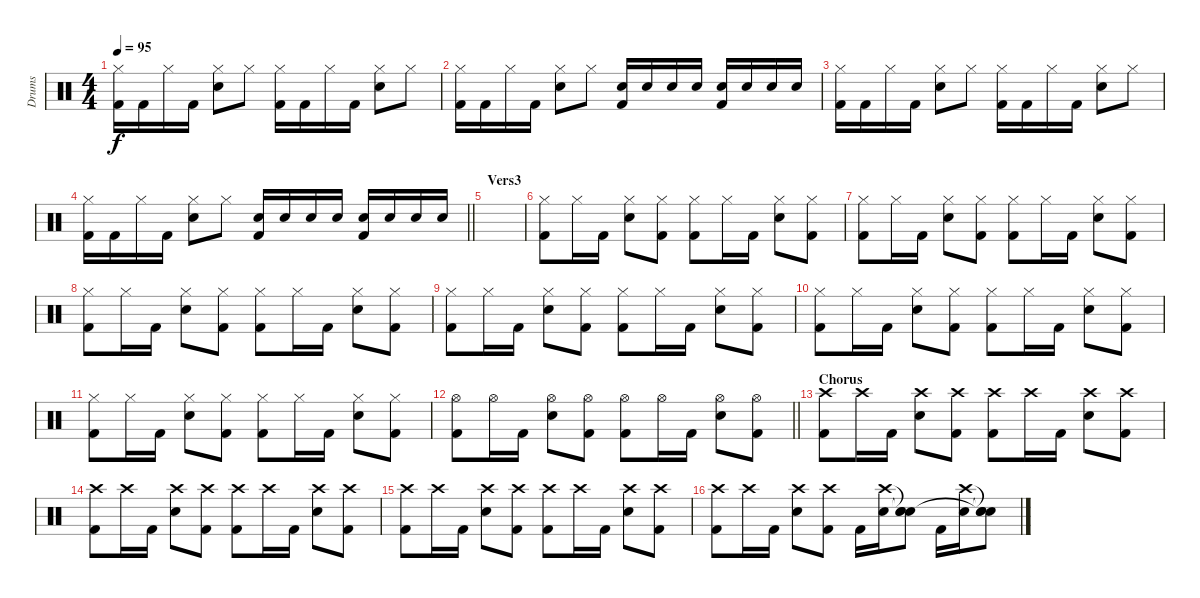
\track ("Drums" "Drums") {instrument percussion}
\staff {score}
\articulation defaults
\ts (4 4)
\tempo 95
\clef neutral
\ks c
("Hi-Hat (closed)" "Kick (hit) 2").16{dy f} "Kick (hit) 2".16 "Hi-Hat (closed)".16 "Kick (hit) 2".16 ("Hi-Hat (closed)" "Snare (hit) 2").8 "Hi-Hat (closed)".8 ("Hi-Hat (closed)" "Kick (hit) 2").16 "Kick (hit) 2".16 "Hi-Hat (closed)".16 "Kick (hit) 2".16 ("Hi-Hat (closed)" "Snare (hit) 2").8 "Hi-Hat (closed)".8 |
("Hi-Hat (closed)" "Kick (hit) 2").16 "Kick (hit) 2".16 "Hi-Hat (closed)".16 "Kick (hit) 2".16 ("Hi-Hat (closed)" "Snare (hit) 2").8 "Hi-Hat (closed)".8 ("Snare (hit) 2" "Kick (hit) 2").16 "Snare (hit) 2".16 "Snare (hit) 2".16 "Snare (hit) 2".16 ("Snare (hit) 2" "Kick (hit) 2").16 "Snare (hit) 2".16 "Snare (hit) 2".16 "Snare (hit) 2".16 |
("Hi-Hat (closed)" "Kick (hit) 2").16 "Kick (hit) 2".16 "Hi-Hat (closed)".16 "Kick (hit) 2".16 ("Hi-Hat (closed)" "Snare (hit) 2").8 "Hi-Hat (closed)".8 ("Hi-Hat (closed)" "Kick (hit) 2").16 "Kick (hit) 2".16 "Hi-Hat (closed)".16 "Kick (hit) 2".16 ("Hi-Hat (closed)" "Snare (hit) 2").8 "Hi-Hat (closed)".8 |
\barLineRight lightlight
("Hi-Hat (closed)" "Kick (hit) 2").16 "Kick (hit) 2".16 "Hi-Hat (closed)".16 "Kick (hit) 2".16 ("Hi-Hat (closed)" "Snare (hit) 2").8 "Hi-Hat (closed)".8 ("Snare (hit) 2" "Kick (hit) 2").16 "Snare (hit) 2".16 "Snare (hit) 2".16 "Snare (hit) 2".16 ("Snare (hit) 2" "Kick (hit) 2").16 "Snare (hit) 2".16 "Snare (hit) 2".16 "Snare (hit) 2".16 |
\section ("" "Vers3")
|
("Hi-Hat (closed)" "Kick (hit) 2").8 "Hi-Hat (closed)".16 "Kick (hit) 2".16 ("Hi-Hat (closed)" "Snare (hit) 2").8 ("Hi-Hat (closed)" "Kick (hit) 2").8 ("Hi-Hat (closed)" "Kick (hit) 2").8 "Hi-Hat (closed)".16 "Kick (hit) 2".16 ("Hi-Hat (closed)" "Snare (hit) 2").8 ("Hi-Hat (closed)" "Kick (hit) 2").8 |
("Hi-Hat (closed)" "Kick (hit) 2").8 "Hi-Hat (closed)".16 "Kick (hit) 2".16 ("Hi-Hat (closed)" "Snare (hit) 2").8 ("Hi-Hat (closed)" "Kick (hit) 2").8 ("Hi-Hat (closed)" "Kick (hit) 2").8 "Hi-Hat (closed)".16 "Kick (hit) 2".16 ("Hi-Hat (closed)" "Snare (hit) 2").8 ("Hi-Hat (closed)" "Kick (hit) 2").8 |
("Hi-Hat (closed)" "Kick (hit) 2").8 "Hi-Hat (closed)".16 "Kick (hit) 2".16 ("Hi-Hat (closed)" "Snare (hit) 2").8 ("Hi-Hat (closed)" "Kick (hit) 2").8 ("Hi-Hat (closed)" "Kick (hit) 2").8 "Hi-Hat (closed)".16 "Kick (hit) 2".16 ("Hi-Hat (closed)" "Snare (hit) 2").8 ("Hi-Hat (closed)" "Kick (hit) 2").8 |
("Hi-Hat (closed)" "Kick (hit) 2").8 "Hi-Hat (closed)".16 "Kick (hit) 2".16 ("Hi-Hat (closed)" "Snare (hit) 2").8 ("Hi-Hat (closed)" "Kick (hit) 2").8 ("Hi-Hat (closed)" "Kick (hit) 2").8 "Hi-Hat (closed)".16 "Kick (hit) 2".16 ("Hi-Hat (closed)" "Snare (hit) 2").8 ("Hi-Hat (closed)" "Kick (hit) 2").8 |
("Hi-Hat (closed)" "Kick (hit) 2").8 "Hi-Hat (closed)".16 "Kick (hit) 2".16 ("Hi-Hat (closed)" "Snare (hit) 2").8 ("Hi-Hat (closed)" "Kick (hit) 2").8 ("Hi-Hat (closed)" "Kick (hit) 2").8 "Hi-Hat (closed)".16 "Kick (hit) 2".16 ("Hi-Hat (closed)" "Snare (hit) 2").8 ("Hi-Hat (closed)" "Kick (hit) 2").8 |
("Hi-Hat (closed)" "Kick (hit) 2").8 "Hi-Hat (closed)".16 "Kick (hit) 2".16 ("Hi-Hat (closed)" "Snare (hit) 2").8 ("Hi-Hat (closed)" "Kick (hit) 2").8 ("Hi-Hat (closed)" "Kick (hit) 2").8 "Hi-Hat (closed)".16 "Kick (hit) 2".16 ("Hi-Hat (closed)" "Snare (hit) 2").8 ("Hi-Hat (closed)" "Kick (hit) 2").8 |
\barLineRight lightlight
("Hi-Hat (open)" "Kick (hit) 2").8 "Hi-Hat (open)".16 "Kick (hit) 2".16 ("Hi-Hat (open)" "Snare (hit) 2").8 ("Hi-Hat (open)" "Kick (hit) 2").8 ("Hi-Hat (open)" "Kick (hit) 2").8 "Hi-Hat (open)".16 "Kick (hit) 2".16 ("Hi-Hat (open)" "Snare (hit) 2").8 ("Hi-Hat (open)" "Kick (hit) 2").8 |
\section ("" "Chorus")
("Crash high (hit)" "Kick (hit) 2").8 "Crash high (hit)".16 "Kick (hit) 2".16 ("Crash high (hit)" "Snare (hit) 2").8 ("Crash high (hit)" "Kick (hit) 2").8 ("Crash high (hit)" "Kick (hit) 2").8 "Crash high (hit)".16 "Kick (hit) 2".16 ("Crash high (hit)" "Snare (hit) 2").8 ("Crash high (hit)" "Kick (hit) 2").8 |
("Crash high (hit)" "Kick (hit) 2").8 "Crash high (hit)".16 "Kick (hit) 2".16 ("Crash high (hit)" "Snare (hit) 2").8 ("Crash high (hit)" "Kick (hit) 2").8 ("Crash high (hit)" "Kick (hit) 2").8 "Crash high (hit)".16 "Kick (hit) 2".16 ("Crash high (hit)" "Snare (hit) 2").8 ("Crash high (hit)" "Kick (hit) 2").8 |
("Crash high (hit)" "Kick (hit) 2").8 "Crash high (hit)".16 "Kick (hit) 2".16 ("Crash high (hit)" "Snare (hit) 2").8 ("Crash high (hit)" "Kick (hit) 2").8 ("Crash high (hit)" "Kick (hit) 2").8 "Crash high (hit)".16 "Kick (hit) 2".16 ("Crash high (hit)" "Snare (hit) 2").8 ("Crash high (hit)" "Kick (hit) 2").8 |
("Crash high (hit)" "Kick (hit) 2").8 "Crash high (hit)".16 "Kick (hit) 2".16 ("Crash high (hit)" "Snare (hit) 2").8 ("Crash high (hit)" "Kick (hit) 2").8 "Kick (hit) 2".16 ("Crash high (hit)" "Snare (hit) 2").16 ("Snare (hit)"{t} "Snare (hit)"{t} "Snare (hit)").8 "Kick (hit) 2".16 ("Crash high (hit)" "Snare (hit) 2").16 ("Snare (hit)"{t} "Snare (hit)"{t} "Snare (hit)"{t}).8
